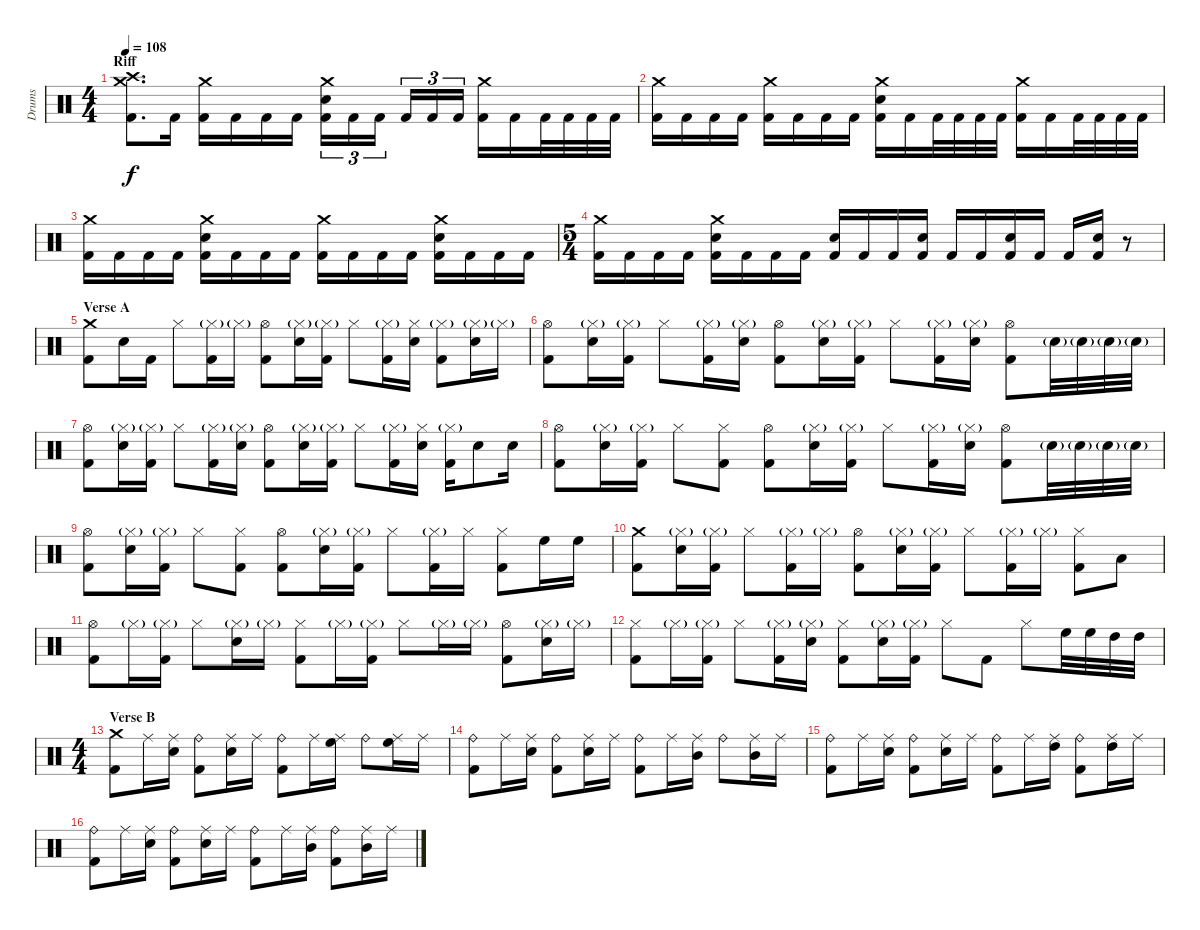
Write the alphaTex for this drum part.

\track ("Drums" "Drums") {instrument percussion}
\staff {score}
\articulation defaults
\ts (4 4)
\section ("" "Riff")
\tempo 108
\clef neutral
\ks c
("Crash medium (hit)" "Crash high (hit)" "Kick (hit) 2").8{d dy f} "Kick (hit) 2".16 ("Crash medium (hit)" "Kick (hit) 2").16 "Kick (hit) 2".16 "Kick (hit) 2".16 "Kick (hit) 2".16 ("Crash medium (hit)" "Snare (hit) 2" "Kick (hit) 2").16{tu (3 2)} "Kick (hit) 2".16{tu (3 2)} "Kick (hit) 2".16{tu (3 2)} "Kick (hit) 2".16{tu (3 2)} "Kick (hit) 2".16{tu (3 2)} "Kick (hit) 2".16{tu (3 2)} ("Crash medium (hit)" "Kick (hit) 2").16 "Kick (hit) 2".16 "Kick (hit) 2".32 "Kick (hit) 2".32 "Kick (hit) 2".32 "Kick (hit) 2".32 |
("Crash medium (hit)" "Kick (hit) 2").16 "Kick (hit) 2".16 "Kick (hit) 2".16 "Kick (hit) 2".16 ("Crash medium (hit)" "Kick (hit) 2").16 "Kick (hit) 2".16 "Kick (hit) 2".16 "Kick (hit) 2".16 ("Crash medium (hit)" "Snare (hit) 2" "Kick (hit) 2").16 "Kick (hit) 2".16 "Kick (hit) 2".32 "Kick (hit) 2".32 "Kick (hit) 2".32 "Kick (hit) 2".32 ("Crash medium (hit)" "Kick (hit) 2").16 "Kick (hit) 2".16 "Kick (hit) 2".32 "Kick (hit) 2".32 "Kick (hit) 2".32 "Kick (hit) 2".32 |
("Crash medium (hit)" "Kick (hit) 2").16 "Kick (hit) 2".16 "Kick (hit) 2".16 "Kick (hit) 2".16 ("Crash medium (hit)" "Snare (hit) 2" "Kick (hit) 2").16 "Kick (hit) 2".16 "Kick (hit) 2".16 "Kick (hit) 2".16 ("Crash medium (hit)" "Kick (hit) 2").16 "Kick (hit) 2".16 "Kick (hit) 2".16 "Kick (hit) 2".16 ("Crash medium (hit)" "Snare (hit) 2" "Kick (hit) 2").16 "Kick (hit) 2".16 "Kick (hit) 2".16 "Kick (hit) 2".16 |
\ts (5 4)
("Crash medium (hit)" "Kick (hit) 2").16 "Kick (hit) 2".16 "Kick (hit) 2".16 "Kick (hit) 2".16 ("Crash medium (hit)" "Snare (hit) 2" "Kick (hit) 2").16 "Kick (hit) 2".16 "Kick (hit) 2".16 "Kick (hit) 2".16 ("Snare (hit) 2" "Kick (hit) 2").16 "Kick (hit) 2".16 "Kick (hit) 2".16 ("Snare (hit) 2" "Kick (hit) 2").16 "Kick (hit) 2".16 "Kick (hit) 2".16 ("Snare (hit) 2" "Kick (hit) 2").16 "Kick (hit) 2".16 "Kick (hit) 2".16 ("Snare (hit) 2" "Kick (hit) 2").16 r.8 |
\section ("" "Verse A")
("Crash medium (hit)" "Kick (hit) 2").8 "Snare (hit) 2".16 "Kick (hit) 2".16 "Hi-Hat (closed)".8 ("Hi-Hat (closed)"{g} "Kick (hit) 2").16 "Hi-Hat (closed)"{g}.16 ("Hi-Hat (open)" "Kick (hit) 2").8 ("Hi-Hat (closed)"{g} "Snare (hit) 2").16 ("Hi-Hat (closed)"{g} "Kick (hit) 2").16 "Hi-Hat (closed)".8 ("Hi-Hat (closed)"{g} "Kick (hit) 2").16 ("Hi-Hat (closed)" "Snare (hit) 2").16 ("Hi-Hat (closed)"{g} "Kick (hit) 2").8 ("Hi-Hat (closed)"{g} "Snare (hit) 2").16 "Hi-Hat (closed)"{g}.16 |
("Hi-Hat (open)" "Kick (hit) 2").8 ("Hi-Hat (closed)"{g} "Snare (hit) 2").16 ("Hi-Hat (closed)"{g} "Kick (hit) 2").16 "Hi-Hat (closed)".8 ("Hi-Hat (closed)"{g} "Kick (hit) 2").16 ("Hi-Hat (closed)"{g} "Snare (hit) 2").16 ("Hi-Hat (open)" "Kick (hit) 2").8 ("Hi-Hat (closed)"{g} "Snare (hit) 2").16 ("Hi-Hat (closed)"{g} "Kick (hit) 2").16 "Hi-Hat (closed)".8 ("Hi-Hat (closed)"{g} "Kick (hit) 2").16 ("Hi-Hat (closed)"{g} "Snare (hit) 2").16 ("Hi-Hat (open)" "Kick (hit) 2").8 "Snare (hit) 2"{g}.32 "Snare (hit) 2"{g}.32 "Snare (hit) 2"{g}.32 "Snare (hit) 2"{g}.32 |
("Hi-Hat (open)" "Kick (hit) 2").8 ("Hi-Hat (closed)"{g} "Snare (hit) 2").16 ("Hi-Hat (closed)"{g} "Kick (hit) 2").16 "Hi-Hat (closed)".8 ("Hi-Hat (closed)"{g} "Kick (hit) 2").16 ("Hi-Hat (closed)"{g} "Snare (hit) 2").16 ("Hi-Hat (open)" "Kick (hit) 2").8 ("Hi-Hat (closed)"{g} "Snare (hit) 2").16 ("Hi-Hat (closed)"{g} "Kick (hit) 2").16 "Hi-Hat (closed)".8 ("Hi-Hat (closed)"{g} "Kick (hit) 2").16 ("Hi-Hat (closed)" "Snare (hit) 2").16 ("Hi-Hat (closed)"{g} "Kick (hit) 2").16 "Snare (hit) 2".8 "Snare (hit) 2".16 |
("Hi-Hat (open)" "Kick (hit) 2").8 ("Hi-Hat (closed)"{g} "Snare (hit) 2").16 ("Hi-Hat (closed)"{g} "Kick (hit) 2").16 "Hi-Hat (closed)".8 ("Hi-Hat (closed)" "Kick (hit) 2").8 ("Hi-Hat (open)" "Kick (hit) 2").8 ("Hi-Hat (closed)"{g} "Snare (hit) 2").16 ("Hi-Hat (closed)"{g} "Kick (hit) 2").16 "Hi-Hat (closed)".8 ("Hi-Hat (closed)"{g} "Kick (hit) 2").16 ("Hi-Hat (closed)"{g} "Snare (hit) 2").16 ("Hi-Hat (open)" "Kick (hit) 2").8 "Snare (hit) 2"{g}.32 "Snare (hit) 2"{g}.32 "Snare (hit) 2"{g}.32 "Snare (hit) 2"{g}.32 |
("Hi-Hat (open)" "Kick (hit) 2").8 ("Hi-Hat (closed)"{g} "Snare (hit) 2").16 ("Hi-Hat (closed)"{g} "Kick (hit) 2").16 "Hi-Hat (closed)".8 ("Hi-Hat (closed)" "Kick (hit) 2").8 ("Hi-Hat (open)" "Kick (hit) 2").8 ("Hi-Hat (closed)"{g} "Snare (hit) 2").16 ("Hi-Hat (closed)"{g} "Kick (hit) 2").16 "Hi-Hat (closed)".8 ("Hi-Hat (closed)"{g} "Kick (hit) 2").16 "Hi-Hat (closed)".16 ("Hi-Hat (closed)" "Kick (hit) 2").8 "High Floor Tom (hit)".16 "High Floor Tom (hit)".16 |
("Crash medium (hit)" "Kick (hit) 2").8 ("Hi-Hat (closed)"{g} "Snare (hit) 2").16 ("Hi-Hat (closed)"{g} "Kick (hit) 2").16 "Hi-Hat (closed)".8 ("Hi-Hat (closed)"{g} "Kick (hit) 2").16 "Hi-Hat (closed)"{g}.16 ("Hi-Hat (open)" "Kick (hit) 2").8 ("Hi-Hat (closed)"{g} "Snare (hit) 2").16 ("Hi-Hat (closed)"{g} "Kick (hit) 2").16 "Hi-Hat (closed)".8 ("Hi-Hat (closed)"{g} "Kick (hit) 2").16 "Hi-Hat (closed)"{g}.16 ("Hi-Hat (closed)" "Kick (hit) 2").8 "Low Tom (hit)".8 |
("Hi-Hat (open)" "Kick (hit) 2").8 "Hi-Hat (closed)"{g}.16 ("Hi-Hat (closed)"{g} "Kick (hit) 2").16 "Hi-Hat (closed)".8 ("Hi-Hat (closed)"{g} "Snare (hit) 2").16 "Hi-Hat (closed)"{g}.16 ("Hi-Hat (closed)" "Kick (hit) 2").8 "Hi-Hat (closed)"{g}.16 ("Hi-Hat (closed)"{g} "Kick (hit) 2").16 "Hi-Hat (closed)".8 "Hi-Hat (closed)"{g}.16 "Hi-Hat (closed)"{g}.16 ("Hi-Hat (open)" "Kick (hit) 2").8 ("Hi-Hat (closed)"{g} "Snare (hit) 2").16 "Hi-Hat (closed)"{g}.16 |
("Hi-Hat (closed)" "Kick (hit) 2").8 "Hi-Hat (closed)"{g}.16 ("Hi-Hat (closed)"{g} "Kick (hit) 2").16 "Hi-Hat (closed)".8 ("Hi-Hat (closed)"{g} "Kick (hit) 2").16 ("Hi-Hat (closed)"{g} "Snare (hit) 2").16 ("Hi-Hat (closed)" "Kick (hit) 2").8 ("Hi-Hat (closed)"{g} "Snare (hit) 2").16 ("Hi-Hat (closed)"{g} "Kick (hit) 2").16 "Hi-Hat (closed)".8 "Kick (hit) 2".8 "Hi-Hat (closed)".8 "High Floor Tom (hit)".32 "High Floor Tom (hit)".32 "High Tom (hit)".32 "High Tom (hit)".32 |
\ts (4 4)
\section ("" "Verse B")
("Crash medium (hit)" "Kick (hit) 2").8 "Ride (middle)".16 ("Ride (middle)" "Snare (hit) 2").16 ("Ride (bell)" "Kick (hit) 2").8 ("Ride (middle)" "Snare (hit) 2").16 "Ride (middle)".16 ("Ride (bell)" "Kick (hit) 2").8 "Ride (middle)".16 ("Ride (middle)" "High Floor Tom (hit)").16 "Ride (bell)".8 ("Ride (middle)" "High Floor Tom (hit)").16 "Ride (middle)".16 |
("Ride (bell)" "Kick (hit) 2").8 "Ride (middle)".16 ("Ride (middle)" "Snare (hit) 2").16 ("Ride (bell)" "Kick (hit) 2").8 ("Ride (middle)" "Snare (hit) 2").16 "Ride (middle)".16 ("Ride (bell)" "Kick (hit) 2").8 "Ride (middle)".16 ("Ride (middle)" "Mid Tom (hit)").16 "Ride (bell)".8 ("Ride (middle)" "Mid Tom (hit)").16 "Ride (middle)".16 |
("Ride (bell)" "Kick (hit) 2").8 "Ride (middle)".16 ("Ride (middle)" "Snare (hit) 2").16 ("Ride (bell)" "Kick (hit) 2").8 ("Ride (middle)" "Snare (hit) 2").16 "Ride (middle)".16 ("Ride (bell)" "Kick (hit) 2").8 "Ride (middle)".16 ("Ride (middle)" "High Tom (hit)").16 ("Ride (bell)" "Kick (hit) 2").8 ("Ride (middle)" "High Tom (hit)").16 "Ride (middle)".16 |
("Ride (bell)" "Kick (hit) 2").8 "Ride (middle)".16 ("Ride (middle)" "Snare (hit) 2").16 ("Ride (bell)" "Kick (hit) 2").8 ("Ride (middle)" "Snare (hit) 2").16 "Ride (middle)".16 ("Ride (bell)" "Kick (hit) 2").8 "Ride (middle)".16 ("Ride (middle)" "Mid Tom (hit)").16 ("Ride (bell)" "Kick (hit) 2").8 ("Ride (middle)" "Mid Tom (hit)").16 "Ride (middle)".16
